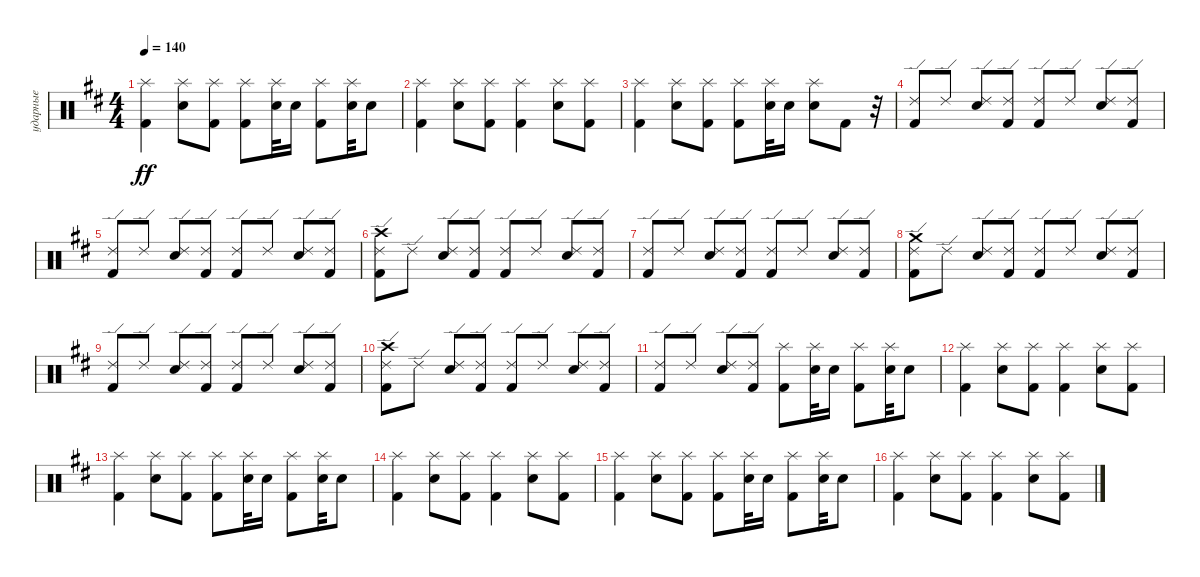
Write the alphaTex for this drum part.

\track ("ударные" "ударные") {instrument percussion}
\staff {score}
\articulation defaults
\ts (4 4)
\tempo 140
\clef neutral
\ks bminor
("Kick (hit) 2" "Splash (hit)").4{dy ff} ("Snare (hit) 2" "Splash (hit)").8 ("Kick (hit) 2" "Splash (hit)").8 ("Kick (hit) 2" "Splash (hit)").8 ("Snare (hit) 2" "Splash (hit)").32 "Snare (hit) 2".16{beam split} ("Kick (hit) 2" "Splash (hit)").8{beam merge} ("Snare (hit) 2" "Splash (hit)").32 "Snare (hit) 2".8 |
("Kick (hit) 2" "Splash (hit)").4 ("Snare (hit) 2" "Splash (hit)").8 ("Kick (hit) 2" "Splash (hit)").8 ("Kick (hit) 2" "Splash (hit)").4 ("Snare (hit) 2" "Splash (hit)").8 ("Kick (hit) 2" "Splash (hit)").8 |
("Kick (hit) 2" "Splash (hit)").4 ("Snare (hit) 2" "Splash (hit)").8 ("Kick (hit) 2" "Splash (hit)").8 ("Kick (hit) 2" "Splash (hit)").8 ("Snare (hit) 2" "Splash (hit)").32 "Snare (hit) 2".16{beam split} ("Snare (hit) 2" "Splash (hit)").8{beam merge} "Kick (hit) 2".8 r.32 |
("Kick (hit) 2" "Ride (edge) 2").8 "Ride (edge) 2".8 ("Snare (hit) 2" "Ride (edge) 2").8 ("Kick (hit) 2" "Ride (edge) 2").8 ("Kick (hit) 2" "Ride (edge) 2").8 "Ride (edge) 2".8 ("Snare (hit) 2" "Ride (edge) 2").8 ("Kick (hit) 2" "Ride (edge) 2").8 |
("Kick (hit) 2" "Ride (edge) 2").8 "Ride (edge) 2".8 ("Snare (hit) 2" "Ride (edge) 2").8 ("Kick (hit) 2" "Ride (edge) 2").8 ("Kick (hit) 2" "Ride (edge) 2").8 "Ride (edge) 2".8 ("Snare (hit) 2" "Ride (edge) 2").8 ("Kick (hit) 2" "Ride (edge) 2").8 |
("Kick (hit) 2" "Ride (edge) 2" "Crash high (hit)").8 "Ride (edge) 2".8 ("Snare (hit) 2" "Ride (edge) 2").8 ("Kick (hit) 2" "Ride (edge) 2").8 ("Kick (hit) 2" "Ride (edge) 2").8 "Ride (edge) 2".8 ("Snare (hit) 2" "Ride (edge) 2").8 ("Kick (hit) 2" "Ride (edge) 2").8 |
("Kick (hit) 2" "Ride (edge) 2").8 "Ride (edge) 2".8 ("Snare (hit) 2" "Ride (edge) 2").8 ("Kick (hit) 2" "Ride (edge) 2").8 ("Kick (hit) 2" "Ride (edge) 2").8 "Ride (edge) 2".8 ("Snare (hit) 2" "Ride (edge) 2").8 ("Kick (hit) 2" "Ride (edge) 2").8 |
("Kick (hit) 2" "Ride (edge) 2" "Crash medium (hit)").8 "Ride (edge) 2".8 ("Snare (hit) 2" "Ride (edge) 2").8 ("Kick (hit) 2" "Ride (edge) 2").8 ("Kick (hit) 2" "Ride (edge) 2").8 "Ride (edge) 2".8 ("Snare (hit) 2" "Ride (edge) 2").8 ("Kick (hit) 2" "Ride (edge) 2").8 |
("Kick (hit) 2" "Ride (edge) 2").8 "Ride (edge) 2".8 ("Snare (hit) 2" "Ride (edge) 2").8 ("Kick (hit) 2" "Ride (edge) 2").8 ("Kick (hit) 2" "Ride (edge) 2").8 "Ride (edge) 2".8 ("Snare (hit) 2" "Ride (edge) 2").8 ("Kick (hit) 2" "Ride (edge) 2").8 |
("Kick (hit) 2" "Ride (edge) 2" "Crash high (hit)").8 "Ride (edge) 2".8 ("Snare (hit) 2" "Ride (edge) 2").8 ("Kick (hit) 2" "Ride (edge) 2").8 ("Kick (hit) 2" "Ride (edge) 2").8 "Ride (edge) 2".8 ("Snare (hit) 2" "Ride (edge) 2").8 ("Kick (hit) 2" "Ride (edge) 2").8 |
("Kick (hit) 2" "Ride (edge) 2").8 "Ride (edge) 2".8 ("Snare (hit) 2" "Ride (edge) 2").8 ("Kick (hit) 2" "Ride (edge) 2").8 ("Kick (hit) 2" "Splash (hit)").8 ("Snare (hit) 2" "Splash (hit)").32 "Snare (hit) 2".16{beam split} ("Kick (hit) 2" "Splash (hit)").8{beam merge} ("Snare (hit) 2" "Splash (hit)").32 "Snare (hit) 2".8 |
("Kick (hit) 2" "Splash (hit)").4 ("Snare (hit) 2" "Splash (hit)").8 ("Kick (hit) 2" "Splash (hit)").8 ("Kick (hit) 2" "Splash (hit)").4 ("Snare (hit) 2" "Splash (hit)").8 ("Kick (hit) 2" "Splash (hit)").8 |
("Kick (hit) 2" "Splash (hit)").4 ("Snare (hit) 2" "Splash (hit)").8 ("Kick (hit) 2" "Splash (hit)").8 ("Kick (hit) 2" "Splash (hit)").8 ("Snare (hit) 2" "Splash (hit)").32 "Snare (hit) 2".16{beam split} ("Kick (hit) 2" "Splash (hit)").8{beam merge} ("Snare (hit) 2" "Splash (hit)").32 "Snare (hit) 2".8 |
("Kick (hit) 2" "Splash (hit)").4 ("Snare (hit) 2" "Splash (hit)").8 ("Kick (hit) 2" "Splash (hit)").8 ("Kick (hit) 2" "Splash (hit)").4 ("Snare (hit) 2" "Splash (hit)").8 ("Kick (hit) 2" "Splash (hit)").8 |
("Kick (hit) 2" "Splash (hit)").4 ("Snare (hit) 2" "Splash (hit)").8 ("Kick (hit) 2" "Splash (hit)").8 ("Kick (hit) 2" "Splash (hit)").8 ("Snare (hit) 2" "Splash (hit)").32 "Snare (hit) 2".16{beam split} ("Kick (hit) 2" "Splash (hit)").8{beam merge} ("Snare (hit) 2" "Splash (hit)").32 "Snare (hit) 2".8 |
("Kick (hit) 2" "Splash (hit)").4 ("Snare (hit) 2" "Splash (hit)").8 ("Kick (hit) 2" "Splash (hit)").8 ("Kick (hit) 2" "Splash (hit)").4 ("Snare (hit) 2" "Splash (hit)").8 ("Kick (hit) 2" "Splash (hit)").8
